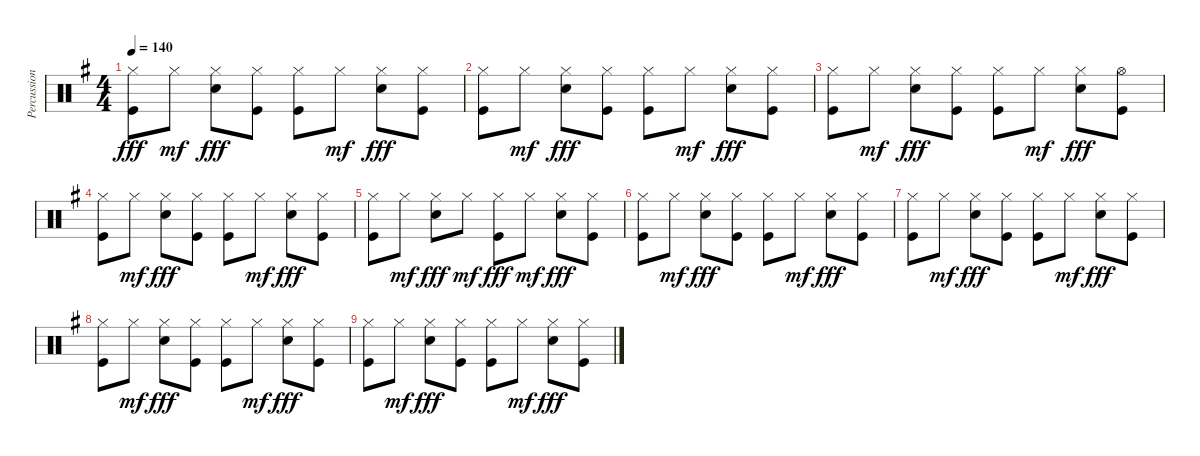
\track ("Percussioni" "Percussion") {instrument percussion}
\staff {score}
\articulation defaults
\ts (4 4)
\tempo 140
\clef neutral
\ks eminor
("Hi-Hat (closed)" "Kick (hit)").8{dy fff} "Hi-Hat (closed)".8{dy mf} ("Hi-Hat (closed)" "Electric Snare (hit)").8{dy fff} ("Hi-Hat (closed)" "Kick (hit)").8 ("Hi-Hat (closed)" "Kick (hit)").8 "Hi-Hat (closed)".8{dy mf} ("Hi-Hat (closed)" "Electric Snare (hit)").8{dy fff} ("Hi-Hat (closed)" "Kick (hit)").8 |
("Hi-Hat (closed)" "Kick (hit)").8 "Hi-Hat (closed)".8{dy mf} ("Hi-Hat (closed)" "Electric Snare (hit)").8{dy fff} ("Hi-Hat (closed)" "Kick (hit)").8 ("Hi-Hat (closed)" "Kick (hit)").8 "Hi-Hat (closed)".8{dy mf} ("Hi-Hat (closed)" "Electric Snare (hit)").8{dy fff} ("Hi-Hat (closed)" "Kick (hit)").8 |
("Hi-Hat (closed)" "Kick (hit)").8 "Hi-Hat (closed)".8{dy mf} ("Hi-Hat (closed)" "Electric Snare (hit)").8{dy fff} ("Hi-Hat (closed)" "Kick (hit)").8 ("Hi-Hat (closed)" "Kick (hit)").8 "Hi-Hat (closed)".8{dy mf} ("Hi-Hat (closed)" "Electric Snare (hit)").8{dy fff} ("Hi-Hat (open)" "Kick (hit)").8 |
("Hi-Hat (closed)" "Kick (hit)").8 "Hi-Hat (closed)".8{dy mf} ("Hi-Hat (closed)" "Electric Snare (hit)").8{dy fff} ("Hi-Hat (closed)" "Kick (hit)").8 ("Hi-Hat (closed)" "Kick (hit)").8 "Hi-Hat (closed)".8{dy mf} ("Hi-Hat (closed)" "Electric Snare (hit)").8{dy fff} ("Hi-Hat (closed)" "Kick (hit)").8 |
("Hi-Hat (closed)" "Kick (hit)").8 "Hi-Hat (closed)".8{dy mf} ("Hi-Hat (closed)" "Electric Snare (hit)").8{dy fff} "Hi-Hat (closed)".8{dy mf} ("Hi-Hat (closed)" "Kick (hit)").8{dy fff} "Hi-Hat (closed)".8{dy mf} ("Hi-Hat (closed)" "Electric Snare (hit)").8{dy fff} ("Hi-Hat (closed)" "Kick (hit)").8 |
("Hi-Hat (closed)" "Kick (hit)").8 "Hi-Hat (closed)".8{dy mf} ("Hi-Hat (closed)" "Electric Snare (hit)").8{dy fff} ("Hi-Hat (closed)" "Kick (hit)").8 ("Hi-Hat (closed)" "Kick (hit)").8 "Hi-Hat (closed)".8{dy mf} ("Hi-Hat (closed)" "Electric Snare (hit)").8{dy fff} ("Hi-Hat (closed)" "Kick (hit)").8 |
("Hi-Hat (closed)" "Kick (hit)").8 "Hi-Hat (closed)".8{dy mf} ("Hi-Hat (closed)" "Electric Snare (hit)").8{dy fff} ("Hi-Hat (closed)" "Kick (hit)").8 ("Hi-Hat (closed)" "Kick (hit)").8 "Hi-Hat (closed)".8{dy mf} ("Hi-Hat (closed)" "Electric Snare (hit)").8{dy fff} ("Hi-Hat (closed)" "Kick (hit)").8 |
("Hi-Hat (closed)" "Kick (hit)").8 "Hi-Hat (closed)".8{dy mf} ("Hi-Hat (closed)" "Electric Snare (hit)").8{dy fff} ("Hi-Hat (closed)" "Kick (hit)").8 ("Hi-Hat (closed)" "Kick (hit)").8 "Hi-Hat (closed)".8{dy mf} ("Hi-Hat (closed)" "Electric Snare (hit)").8{dy fff} ("Hi-Hat (closed)" "Kick (hit)").8 |
("Hi-Hat (closed)" "Kick (hit)").8 "Hi-Hat (closed)".8{dy mf} ("Hi-Hat (closed)" "Electric Snare (hit)").8{dy fff} ("Hi-Hat (closed)" "Kick (hit)").8 ("Hi-Hat (closed)" "Kick (hit)").8 "Hi-Hat (closed)".8{dy mf} ("Hi-Hat (closed)" "Electric Snare (hit)").8{dy fff} ("Hi-Hat (closed)" "Kick (hit)").8
